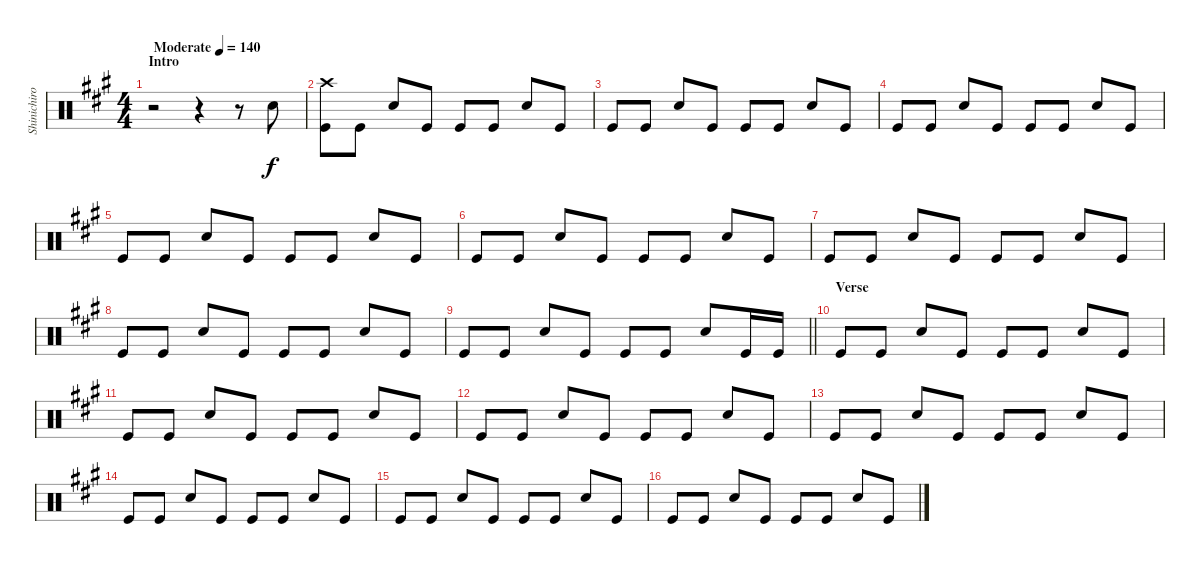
\track ("Shinichiro Drums" "Shinichiro") {instrument percussion}
\staff {score}
\articulation defaults
\ts (4 4)
\section ("" "Intro")
\tempo (140 "Moderate")
\clef neutral
\ks a
r.2{dy f} r.4 r.8 "Snare (hit) 2".8 |
("Crash high (hit)" "Kick (hit)").8 "Kick (hit)".8 "Snare (hit) 2".8 "Kick (hit)".8 "Kick (hit)".8 "Kick (hit)".8 "Snare (hit) 2".8 "Kick (hit)".8 |
"Kick (hit)".8 "Kick (hit)".8 "Snare (hit) 2".8 "Kick (hit)".8 "Kick (hit)".8 "Kick (hit)".8 "Snare (hit) 2".8 "Kick (hit)".8 |
"Kick (hit)".8 "Kick (hit)".8 "Snare (hit) 2".8 "Kick (hit)".8 "Kick (hit)".8 "Kick (hit)".8 "Snare (hit) 2".8 "Kick (hit)".8 |
"Kick (hit)".8 "Kick (hit)".8 "Snare (hit) 2".8 "Kick (hit)".8 "Kick (hit)".8 "Kick (hit)".8 "Snare (hit) 2".8 "Kick (hit)".8 |
"Kick (hit)".8 "Kick (hit)".8 "Snare (hit) 2".8 "Kick (hit)".8 "Kick (hit)".8 "Kick (hit)".8 "Snare (hit) 2".8 "Kick (hit)".8 |
"Kick (hit)".8 "Kick (hit)".8 "Snare (hit) 2".8 "Kick (hit)".8 "Kick (hit)".8 "Kick (hit)".8 "Snare (hit) 2".8 "Kick (hit)".8 |
"Kick (hit)".8 "Kick (hit)".8 "Snare (hit) 2".8 "Kick (hit)".8 "Kick (hit)".8 "Kick (hit)".8 "Snare (hit) 2".8 "Kick (hit)".8 |
\barLineRight lightlight "Kick (hit)".8 "Kick (hit)".8 "Snare (hit) 2".8 "Kick (hit)".8 "Kick (hit)".8 "Kick (hit)".8 "Snare (hit) 2".8 "Kick (hit)".16 "Kick (hit)".16
|
\section ("" "Verse")
"Kick (hit)".8 "Kick (hit)".8 "Snare (hit) 2".8 "Kick (hit)".8 "Kick (hit)".8 "Kick (hit)".8 "Snare (hit) 2".8 "Kick (hit)".8 |
"Kick (hit)".8 "Kick (hit)".8 "Snare (hit) 2".8 "Kick (hit)".8 "Kick (hit)".8 "Kick (hit)".8 "Snare (hit) 2".8 "Kick (hit)".8 |
"Kick (hit)".8 "Kick (hit)".8 "Snare (hit) 2".8 "Kick (hit)".8 "Kick (hit)".8 "Kick (hit)".8 "Snare (hit) 2".8 "Kick (hit)".8 |
"Kick (hit)".8 "Kick (hit)".8 "Snare (hit) 2".8 "Kick (hit)".8 "Kick (hit)".8 "Kick (hit)".8 "Snare (hit) 2".8 "Kick (hit)".8 |
"Kick (hit)".8 "Kick (hit)".8 "Snare (hit) 2".8 "Kick (hit)".8 "Kick (hit)".8 "Kick (hit)".8 "Snare (hit) 2".8 "Kick (hit)".8 |
"Kick (hit)".8 "Kick (hit)".8 "Snare (hit) 2".8 "Kick (hit)".8 "Kick (hit)".8 "Kick (hit)".8 "Snare (hit) 2".8 "Kick (hit)".8 |
"Kick (hit)".8 "Kick (hit)".8 "Snare (hit) 2".8 "Kick (hit)".8 "Kick (hit)".8 "Kick (hit)".8 "Snare (hit) 2".8 "Kick (hit)".8
